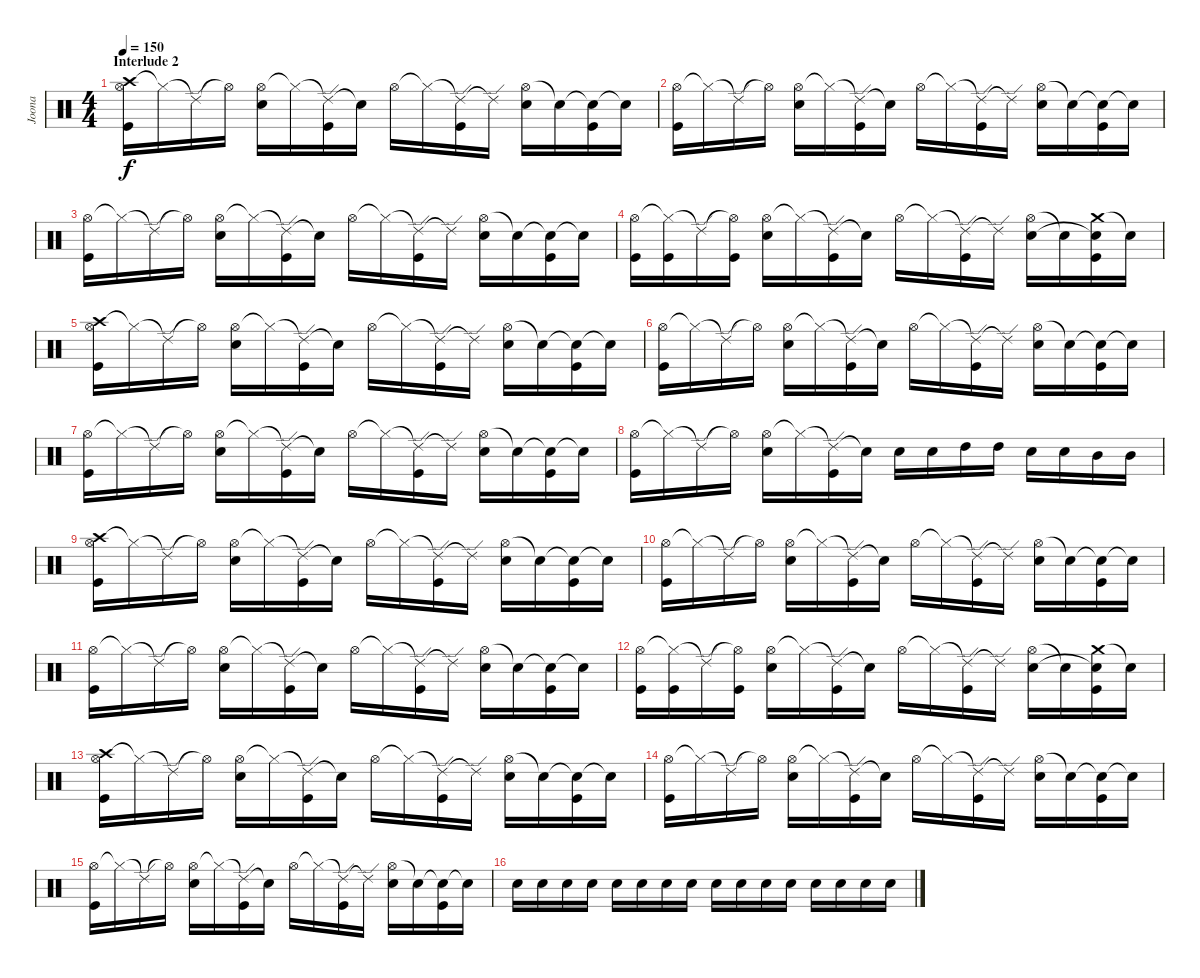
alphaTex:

\track ("Joona" "Joona") {instrument percussion}
\staff {score}
\articulation defaults
\ts (4 4)
\section ("" "Interlude 2")
\tempo 150
\clef neutral
\ks c
("Crash high (hit)" "Hi-Hat (open)" "Kick (hit)").16{dy f} "Hi-Hat (closed)"{t}.16 "Ride (edge) 2"{t}.16 "Hi-Hat (open)"{t}.16 ("Hi-Hat (open)" "Snare (hit) 2").16 "Hi-Hat (closed)"{t}.16 ("Ride (edge) 2"{t} "Kick (hit)").16 "Snare (hit)"{t}.16 "Hi-Hat (open)".16 "Hi-Hat (closed)"{t}.16 ("Ride (edge) 2"{t} "Kick (hit)").16 "Ride (edge) 2"{t}.16 ("Hi-Hat (open)" "Snare (hit) 2").16 "Snare (hit)"{t}.16 ("Snare (hit)"{t} "Kick (hit)").16 "Snare (hit)"{t}.16 |
("Hi-Hat (open)" "Kick (hit)").16 "Hi-Hat (closed)"{t}.16 "Ride (edge) 2"{t}.16 "Hi-Hat (open)"{t}.16 ("Hi-Hat (open)" "Snare (hit) 2").16 "Hi-Hat (closed)"{t}.16 ("Ride (edge) 2"{t} "Kick (hit)").16 "Snare (hit)"{t}.16 "Hi-Hat (open)".16 "Hi-Hat (closed)"{t}.16 ("Ride (edge) 2"{t} "Kick (hit)").16 "Ride (edge) 2"{t}.16 ("Hi-Hat (open)" "Snare (hit) 2").16 "Snare (hit)"{t}.16 ("Snare (hit)"{t} "Kick (hit)").16 "Snare (hit)"{t}.16 |
("Hi-Hat (open)" "Kick (hit)").16 "Hi-Hat (closed)"{t}.16 "Ride (edge) 2"{t}.16 "Hi-Hat (open)"{t}.16 ("Hi-Hat (open)" "Snare (hit) 2").16 "Hi-Hat (closed)"{t}.16 ("Ride (edge) 2"{t} "Kick (hit)").16 "Snare (hit)"{t}.16 "Hi-Hat (open)".16 "Hi-Hat (closed)"{t}.16 ("Ride (edge) 2"{t} "Kick (hit)").16 "Ride (edge) 2"{t}.16 ("Hi-Hat (open)" "Snare (hit) 2").16 "Snare (hit)"{t}.16 ("Snare (hit)"{t} "Kick (hit)").16 "Snare (hit)"{t}.16 |
("Hi-Hat (open)" "Kick (hit)").16 ("Hi-Hat (closed)"{t} "Kick (hit)").16 "Ride (edge) 2"{t}.16 ("Hi-Hat (open)"{t} "Kick (hit)").16 ("Hi-Hat (open)" "Snare (hit) 2").16 "Hi-Hat (closed)"{t}.16 ("Ride (edge) 2"{t} "Kick (hit)").16 "Snare (hit)"{t}.16 "Hi-Hat (open)".16 "Hi-Hat (closed)"{t}.16 ("Ride (edge) 2"{t} "Kick (hit)").16 "Ride (edge) 2"{t}.16 ("Hi-Hat (open)" "Snare (hit) 2").16 "Snare (hit)"{t}.16 ("Crash medium (hit)" "Snare (hit)"{t} "Kick (hit)").16 "Snare (hit)"{t}.16 |
("Crash high (hit)" "Hi-Hat (open)" "Kick (hit)").16 "Hi-Hat (closed)"{t}.16 "Ride (edge) 2"{t}.16 "Hi-Hat (open)"{t}.16 ("Hi-Hat (open)" "Snare (hit) 2").16 "Hi-Hat (closed)"{t}.16 ("Ride (edge) 2"{t} "Kick (hit)").16 "Snare (hit)"{t}.16 "Hi-Hat (open)".16 "Hi-Hat (closed)"{t}.16 ("Ride (edge) 2"{t} "Kick (hit)").16 "Ride (edge) 2"{t}.16 ("Hi-Hat (open)" "Snare (hit) 2").16 "Snare (hit)"{t}.16 ("Snare (hit)"{t} "Kick (hit)").16 "Snare (hit)"{t}.16 |
("Hi-Hat (open)" "Kick (hit)").16 "Hi-Hat (closed)"{t}.16 "Ride (edge) 2"{t}.16 "Hi-Hat (open)"{t}.16 ("Hi-Hat (open)" "Snare (hit) 2").16 "Hi-Hat (closed)"{t}.16 ("Ride (edge) 2"{t} "Kick (hit)").16 "Snare (hit)"{t}.16 "Hi-Hat (open)".16 "Hi-Hat (closed)"{t}.16 ("Ride (edge) 2"{t} "Kick (hit)").16 "Ride (edge) 2"{t}.16 ("Hi-Hat (open)" "Snare (hit) 2").16 "Snare (hit)"{t}.16 ("Snare (hit)"{t} "Kick (hit)").16 "Snare (hit)"{t}.16 |
("Hi-Hat (open)" "Kick (hit)").16 "Hi-Hat (closed)"{t}.16 "Ride (edge) 2"{t}.16 "Hi-Hat (open)"{t}.16 ("Hi-Hat (open)" "Snare (hit) 2").16 "Hi-Hat (closed)"{t}.16 ("Ride (edge) 2"{t} "Kick (hit)").16 "Snare (hit)"{t}.16 "Hi-Hat (open)".16 "Hi-Hat (closed)"{t}.16 ("Ride (edge) 2"{t} "Kick (hit)").16 "Ride (edge) 2"{t}.16 ("Hi-Hat (open)" "Snare (hit) 2").16 "Snare (hit)"{t}.16 ("Snare (hit)"{t} "Kick (hit)").16 "Snare (hit)"{t}.16 |
("Hi-Hat (open)" "Kick (hit)").16 "Hi-Hat (closed)"{t}.16 "Ride (edge) 2"{t}.16 "Hi-Hat (open)"{t}.16 ("Hi-Hat (open)" "Snare (hit) 2").16 "Hi-Hat (closed)"{t}.16 ("Ride (edge) 2"{t} "Kick (hit)").16 "Snare (hit)"{t}.16 "Snare (hit) 2".16 "Snare (hit) 2".16 "High Tom (hit)".16 "High Tom (hit)".16 "Snare (hit) 2".16 "Snare (hit) 2".16 "Mid Tom (hit)".16 "Mid Tom (hit)".16 |
("Crash high (hit)" "Hi-Hat (open)" "Kick (hit)").16 "Hi-Hat (closed)"{t}.16 "Ride (edge) 2"{t}.16 "Hi-Hat (open)"{t}.16 ("Hi-Hat (open)" "Snare (hit) 2").16 "Hi-Hat (closed)"{t}.16 ("Ride (edge) 2"{t} "Kick (hit)").16 "Snare (hit)"{t}.16 "Hi-Hat (open)".16 "Hi-Hat (closed)"{t}.16 ("Ride (edge) 2"{t} "Kick (hit)").16 "Ride (edge) 2"{t}.16 ("Hi-Hat (open)" "Snare (hit) 2").16 "Snare (hit)"{t}.16 ("Snare (hit)"{t} "Kick (hit)").16 "Snare (hit)"{t}.16 |
("Hi-Hat (open)" "Kick (hit)").16 "Hi-Hat (closed)"{t}.16 "Ride (edge) 2"{t}.16 "Hi-Hat (open)"{t}.16 ("Hi-Hat (open)" "Snare (hit) 2").16 "Hi-Hat (closed)"{t}.16 ("Ride (edge) 2"{t} "Kick (hit)").16 "Snare (hit)"{t}.16 "Hi-Hat (open)".16 "Hi-Hat (closed)"{t}.16 ("Ride (edge) 2"{t} "Kick (hit)").16 "Ride (edge) 2"{t}.16 ("Hi-Hat (open)" "Snare (hit) 2").16 "Snare (hit)"{t}.16 ("Snare (hit)"{t} "Kick (hit)").16 "Snare (hit)"{t}.16 |
("Hi-Hat (open)" "Kick (hit)").16 "Hi-Hat (closed)"{t}.16 "Ride (edge) 2"{t}.16 "Hi-Hat (open)"{t}.16 ("Hi-Hat (open)" "Snare (hit) 2").16 "Hi-Hat (closed)"{t}.16 ("Ride (edge) 2"{t} "Kick (hit)").16 "Snare (hit)"{t}.16 "Hi-Hat (open)".16 "Hi-Hat (closed)"{t}.16 ("Ride (edge) 2"{t} "Kick (hit)").16 "Ride (edge) 2"{t}.16 ("Hi-Hat (open)" "Snare (hit) 2").16 "Snare (hit)"{t}.16 ("Snare (hit)"{t} "Kick (hit)").16 "Snare (hit)"{t}.16 |
("Hi-Hat (open)" "Kick (hit)").16 ("Hi-Hat (closed)"{t} "Kick (hit)").16 "Ride (edge) 2"{t}.16 ("Hi-Hat (open)"{t} "Kick (hit)").16 ("Hi-Hat (open)" "Snare (hit) 2").16 "Hi-Hat (closed)"{t}.16 ("Ride (edge) 2"{t} "Kick (hit)").16 "Snare (hit)"{t}.16 "Hi-Hat (open)".16 "Hi-Hat (closed)"{t}.16 ("Ride (edge) 2"{t} "Kick (hit)").16 "Ride (edge) 2"{t}.16 ("Hi-Hat (open)" "Snare (hit) 2").16 "Snare (hit)"{t}.16 ("Crash medium (hit)" "Snare (hit)"{t} "Kick (hit)").16 "Snare (hit)"{t}.16 |
("Crash high (hit)" "Hi-Hat (open)" "Kick (hit)").16 "Hi-Hat (closed)"{t}.16 "Ride (edge) 2"{t}.16 "Hi-Hat (open)"{t}.16 ("Hi-Hat (open)" "Snare (hit) 2").16 "Hi-Hat (closed)"{t}.16 ("Ride (edge) 2"{t} "Kick (hit)").16 "Snare (hit)"{t}.16 "Hi-Hat (open)".16 "Hi-Hat (closed)"{t}.16 ("Ride (edge) 2"{t} "Kick (hit)").16 "Ride (edge) 2"{t}.16 ("Hi-Hat (open)" "Snare (hit) 2").16 "Snare (hit)"{t}.16 ("Snare (hit)"{t} "Kick (hit)").16 "Snare (hit)"{t}.16 |
("Hi-Hat (open)" "Kick (hit)").16 "Hi-Hat (closed)"{t}.16 "Ride (edge) 2"{t}.16 "Hi-Hat (open)"{t}.16 ("Hi-Hat (open)" "Snare (hit) 2").16 "Hi-Hat (closed)"{t}.16 ("Ride (edge) 2"{t} "Kick (hit)").16 "Snare (hit)"{t}.16 "Hi-Hat (open)".16 "Hi-Hat (closed)"{t}.16 ("Ride (edge) 2"{t} "Kick (hit)").16 "Ride (edge) 2"{t}.16 ("Hi-Hat (open)" "Snare (hit) 2").16 "Snare (hit)"{t}.16 ("Snare (hit)"{t} "Kick (hit)").16 "Snare (hit)"{t}.16 |
("Hi-Hat (open)" "Kick (hit)").16 "Hi-Hat (closed)"{t}.16 "Ride (edge) 2"{t}.16 "Hi-Hat (open)"{t}.16 ("Hi-Hat (open)" "Snare (hit) 2").16 "Hi-Hat (closed)"{t}.16 ("Ride (edge) 2"{t} "Kick (hit)").16 "Snare (hit)"{t}.16 "Hi-Hat (open)".16 "Hi-Hat (closed)"{t}.16 ("Ride (edge) 2"{t} "Kick (hit)").16 "Ride (edge) 2"{t}.16 ("Hi-Hat (open)" "Snare (hit) 2").16 "Snare (hit)"{t}.16 ("Snare (hit)"{t} "Kick (hit)").16 "Snare (hit)"{t}.16 |
"Snare (hit) 2".16 "Snare (hit) 2".16 "Snare (hit) 2".16 "Snare (hit) 2".16 "Snare (hit) 2".16 "Snare (hit) 2".16 "Snare (hit) 2".16 "Snare (hit) 2".16 "Snare (hit) 2".16 "Snare (hit) 2".16 "Snare (hit) 2".16 "Snare (hit) 2".16 "Snare (hit) 2".16 "Snare (hit) 2".16 "Snare (hit) 2".16 "Snare (hit) 2".16
